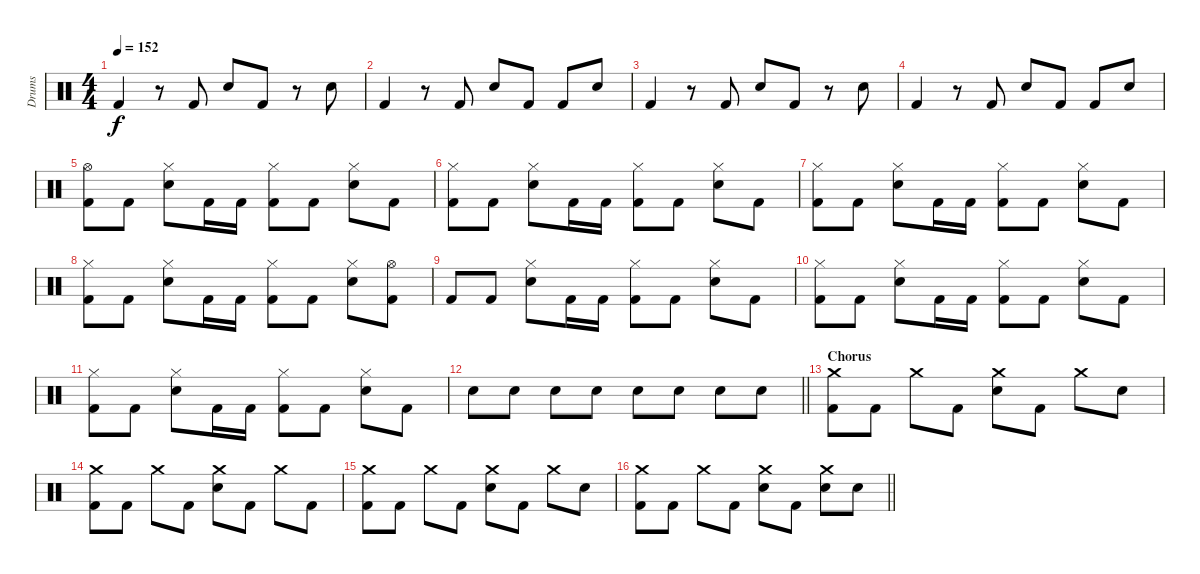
\track ("Drums" "Drums") {instrument percussion}
\staff {score}
\articulation defaults
\ts (4 4)
\tempo 152
\clef neutral
\ks c "Kick (hit) 2".4{dy f}
r.8 "Kick (hit) 2".8 "Electric Snare (hit)".8 "Kick (hit) 2".8 r.8 "Electric Snare (hit)".8 |
"Kick (hit) 2".4 r.8 "Kick (hit) 2".8 "Electric Snare (hit)".8 "Kick (hit) 2".8 "Kick (hit) 2".8 "Electric Snare (hit)".8 |
"Kick (hit) 2".4 r.8 "Kick (hit) 2".8 "Electric Snare (hit)".8 "Kick (hit) 2".8 r.8 "Electric Snare (hit)".8 |
"Kick (hit) 2".4 r.8 "Kick (hit) 2".8 "Electric Snare (hit)".8 "Kick (hit) 2".8 "Kick (hit) 2".8 "Electric Snare (hit)".8 |
("Hi-Hat (open)" "Kick (hit) 2").8 "Kick (hit) 2".8 ("Hi-Hat (closed)" "Electric Snare (hit)").8 "Kick (hit) 2".16 "Kick (hit) 2".16 ("Hi-Hat (closed)" "Kick (hit) 2").8 "Kick (hit) 2".8 ("Hi-Hat (closed)" "Electric Snare (hit)").8 "Kick (hit) 2".8 |
("Hi-Hat (closed)" "Kick (hit) 2").8 "Kick (hit) 2".8 ("Hi-Hat (closed)" "Electric Snare (hit)").8 "Kick (hit) 2".16 "Kick (hit) 2".16 ("Hi-Hat (closed)" "Kick (hit) 2").8 "Kick (hit) 2".8 ("Hi-Hat (closed)" "Electric Snare (hit)").8 "Kick (hit) 2".8 |
("Hi-Hat (closed)" "Kick (hit) 2").8 "Kick (hit) 2".8 ("Hi-Hat (closed)" "Electric Snare (hit)").8 "Kick (hit) 2".16 "Kick (hit) 2".16 ("Hi-Hat (closed)" "Kick (hit) 2").8 "Kick (hit) 2".8 ("Hi-Hat (closed)" "Electric Snare (hit)").8 "Kick (hit) 2".8 |
("Hi-Hat (closed)" "Kick (hit) 2").8 "Kick (hit) 2".8 ("Hi-Hat (closed)" "Electric Snare (hit)").8 "Kick (hit) 2".16 "Kick (hit) 2".16 ("Hi-Hat (closed)" "Kick (hit) 2").8 "Kick (hit) 2".8 ("Hi-Hat (closed)" "Electric Snare (hit)").8 ("Hi-Hat (open)" "Kick (hit) 2").8 |
"Kick (hit) 2".8 "Kick (hit) 2".8 ("Hi-Hat (closed)" "Electric Snare (hit)").8 "Kick (hit) 2".16 "Kick (hit) 2".16 ("Hi-Hat (closed)" "Kick (hit) 2").8 "Kick (hit) 2".8 ("Hi-Hat (closed)" "Electric Snare (hit)").8 "Kick (hit) 2".8 |
("Hi-Hat (closed)" "Kick (hit) 2").8 "Kick (hit) 2".8 ("Hi-Hat (closed)" "Electric Snare (hit)").8 "Kick (hit) 2".16 "Kick (hit) 2".16 ("Hi-Hat (closed)" "Kick (hit) 2").8 "Kick (hit) 2".8 ("Hi-Hat (closed)" "Electric Snare (hit)").8 "Kick (hit) 2".8 |
("Hi-Hat (closed)" "Kick (hit) 2").8 "Kick (hit) 2".8 ("Hi-Hat (closed)" "Electric Snare (hit)").8 "Kick (hit) 2".16 "Kick (hit) 2".16 ("Hi-Hat (closed)" "Kick (hit) 2").8 "Kick (hit) 2".8 ("Hi-Hat (closed)" "Electric Snare (hit)").8 "Kick (hit) 2".8 |
\barLineRight lightlight "Electric Snare (hit)".8 "Electric Snare (hit)".8 "Electric Snare (hit)".8 "Electric Snare (hit)".8 "Electric Snare (hit)".8 "Electric Snare (hit)".8 "Electric Snare (hit)".8 "Electric Snare (hit)".8
|
\section ("" "Chorus")
("Crash medium (hit)" "Kick (hit) 2").8 "Kick (hit) 2".8 "Crash medium (hit)".8 "Kick (hit) 2".8 ("Crash medium (hit)" "Electric Snare (hit)").8 "Kick (hit) 2".8 "Crash medium (hit)".8 "Electric Snare (hit)".8 |
("Crash medium (hit)" "Kick (hit) 2").8 "Kick (hit) 2".8 "Crash medium (hit)".8 "Kick (hit) 2".8 ("Crash medium (hit)" "Electric Snare (hit)").8 "Kick (hit) 2".8 "Crash medium (hit)".8 "Kick (hit) 2".8 |
("Crash medium (hit)" "Kick (hit) 2").8 "Kick (hit) 2".8 "Crash medium (hit)".8 "Kick (hit) 2".8 ("Crash medium (hit)" "Electric Snare (hit)").8 "Kick (hit) 2".8 "Crash medium (hit)".8 "Electric Snare (hit)".8 |
\barLineRight lightlight
("Crash medium (hit)" "Kick (hit) 2").8 "Kick (hit) 2".8 "Crash medium (hit)".8 "Kick (hit) 2".8 ("Crash medium (hit)" "Electric Snare (hit)").8 "Kick (hit) 2".8 ("Crash medium (hit)" "Electric Snare (hit)").8 "Electric Snare (hit)".8
